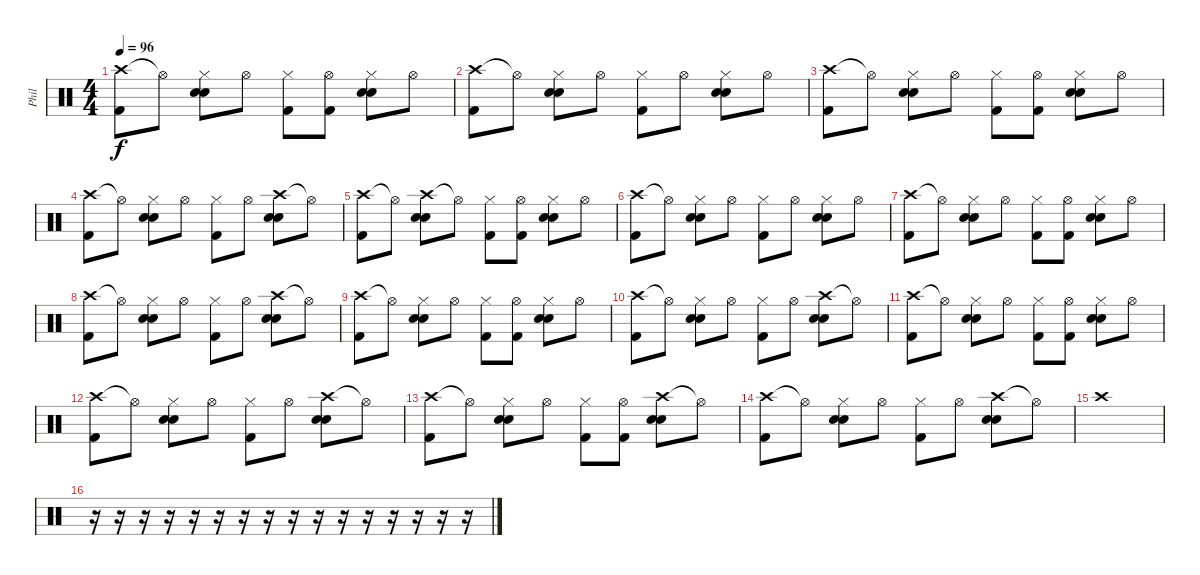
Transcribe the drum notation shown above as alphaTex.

\track ("Phil" "Phil") {instrument percussion}
\staff {score}
\articulation defaults
\ts (4 4)
\tempo 96
\clef neutral
\ks c
("Crash high (hit)" "Kick (hit) 2").8{dy f} "Hi-Hat (open)"{t}.8 ("Hi-Hat (closed)" "Snare (hit) 2" "Electric Snare (hit)").8 "Hi-Hat (open)".8 ("Hi-Hat (closed)" "Kick (hit) 2").8 ("Hi-Hat (open)" "Kick (hit) 2").8 ("Hi-Hat (closed)" "Snare (hit) 2" "Electric Snare (hit)").8 "Hi-Hat (open)".8 |
("Crash high (hit)" "Kick (hit) 2").8 "Hi-Hat (open)"{t}.8 ("Hi-Hat (closed)" "Snare (hit) 2" "Electric Snare (hit)").8 "Hi-Hat (open)".8 ("Hi-Hat (closed)" "Kick (hit) 2").8 "Hi-Hat (open)".8 ("Hi-Hat (closed)" "Snare (hit) 2" "Electric Snare (hit)").8 "Hi-Hat (open)".8 |
("Crash high (hit)" "Kick (hit) 2").8 "Hi-Hat (open)"{t}.8 ("Hi-Hat (closed)" "Snare (hit) 2" "Electric Snare (hit)").8 "Hi-Hat (open)".8 ("Hi-Hat (closed)" "Kick (hit) 2").8 ("Hi-Hat (open)" "Kick (hit) 2").8 ("Hi-Hat (closed)" "Snare (hit) 2" "Electric Snare (hit)").8 "Hi-Hat (open)".8 |
("Crash high (hit)" "Kick (hit) 2").8 "Hi-Hat (open)"{t}.8 ("Hi-Hat (closed)" "Snare (hit) 2" "Electric Snare (hit)").8 "Hi-Hat (open)".8 ("Hi-Hat (closed)" "Kick (hit) 2").8 "Hi-Hat (open)".8 ("Crash high (hit)" "Snare (hit) 2" "Electric Snare (hit)").8 "Hi-Hat (open)"{t}.8 |
("Crash high (hit)" "Kick (hit) 2").8 "Hi-Hat (open)"{t}.8 ("Crash high (hit)" "Snare (hit) 2" "Electric Snare (hit)").8 "Hi-Hat (open)"{t}.8 ("Hi-Hat (closed)" "Kick (hit) 2").8 ("Hi-Hat (open)" "Kick (hit) 2").8 ("Hi-Hat (closed)" "Snare (hit) 2" "Electric Snare (hit)").8 "Hi-Hat (open)".8 |
("Crash high (hit)" "Kick (hit) 2").8 "Hi-Hat (open)"{t}.8 ("Hi-Hat (closed)" "Snare (hit) 2" "Electric Snare (hit)").8 "Hi-Hat (open)".8 ("Hi-Hat (closed)" "Kick (hit) 2").8 "Hi-Hat (open)".8 ("Hi-Hat (closed)" "Snare (hit) 2" "Electric Snare (hit)").8 "Hi-Hat (open)".8 |
("Crash high (hit)" "Kick (hit) 2").8 "Hi-Hat (open)"{t}.8 ("Hi-Hat (closed)" "Snare (hit) 2" "Electric Snare (hit)").8 "Hi-Hat (open)".8 ("Hi-Hat (closed)" "Kick (hit) 2").8 ("Hi-Hat (open)" "Kick (hit) 2").8 ("Hi-Hat (closed)" "Snare (hit) 2" "Electric Snare (hit)").8 "Hi-Hat (open)".8 |
("Crash high (hit)" "Kick (hit) 2").8 "Hi-Hat (open)"{t}.8 ("Hi-Hat (closed)" "Snare (hit) 2" "Electric Snare (hit)").8 "Hi-Hat (open)".8 ("Hi-Hat (closed)" "Kick (hit) 2").8 "Hi-Hat (open)".8 ("Crash high (hit)" "Snare (hit) 2" "Electric Snare (hit)").8 "Hi-Hat (open)"{t}.8 |
("Crash high (hit)" "Kick (hit) 2").8 "Hi-Hat (open)"{t}.8 ("Hi-Hat (closed)" "Snare (hit) 2" "Electric Snare (hit)").8 "Hi-Hat (open)".8 ("Hi-Hat (closed)" "Kick (hit) 2").8 ("Hi-Hat (open)" "Kick (hit) 2").8 ("Hi-Hat (closed)" "Snare (hit) 2" "Electric Snare (hit)").8 "Hi-Hat (open)".8 |
("Crash high (hit)" "Kick (hit) 2").8 "Hi-Hat (open)"{t}.8 ("Hi-Hat (closed)" "Snare (hit) 2" "Electric Snare (hit)").8 "Hi-Hat (open)".8 ("Hi-Hat (closed)" "Kick (hit) 2").8 "Hi-Hat (open)".8 ("Crash high (hit)" "Snare (hit) 2" "Electric Snare (hit)").8 "Hi-Hat (open)"{t}.8 |
("Crash high (hit)" "Kick (hit) 2").8 "Hi-Hat (open)"{t}.8 ("Hi-Hat (closed)" "Snare (hit) 2" "Electric Snare (hit)").8 "Hi-Hat (open)".8 ("Hi-Hat (closed)" "Kick (hit) 2").8 ("Hi-Hat (open)" "Kick (hit) 2").8 ("Hi-Hat (closed)" "Snare (hit) 2" "Electric Snare (hit)").8 "Hi-Hat (open)".8 |
("Crash high (hit)" "Kick (hit) 2").8 "Hi-Hat (open)"{t}.8 ("Hi-Hat (closed)" "Snare (hit) 2" "Electric Snare (hit)").8 "Hi-Hat (open)".8 ("Hi-Hat (closed)" "Kick (hit) 2").8 "Hi-Hat (open)".8 ("Crash high (hit)" "Snare (hit) 2" "Electric Snare (hit)").8 "Hi-Hat (open)"{t}.8 |
("Crash high (hit)" "Kick (hit) 2").8 "Hi-Hat (open)"{t}.8 ("Hi-Hat (closed)" "Snare (hit) 2" "Electric Snare (hit)").8 "Hi-Hat (open)".8 ("Hi-Hat (closed)" "Kick (hit) 2").8 ("Hi-Hat (open)" "Kick (hit) 2").8 ("Crash high (hit)" "Snare (hit) 2" "Electric Snare (hit)").8 "Hi-Hat (open)"{t}.8 |
("Crash high (hit)" "Kick (hit) 2").8 "Hi-Hat (open)"{t}.8 ("Hi-Hat (closed)" "Snare (hit) 2" "Electric Snare (hit)").8 "Hi-Hat (open)".8 ("Hi-Hat (closed)" "Kick (hit) 2").8 "Hi-Hat (open)".8 ("Crash high (hit)" "Snare (hit) 2" "Electric Snare (hit)").8 "Hi-Hat (open)"{t}.8 |
"Crash high (hit)".1 |
r.16 r.16 r.16 r.16 r.16 r.16 r.16 r.16 r.16 r.16 r.16 r.16 r.16 r.16 r.16 r.16
